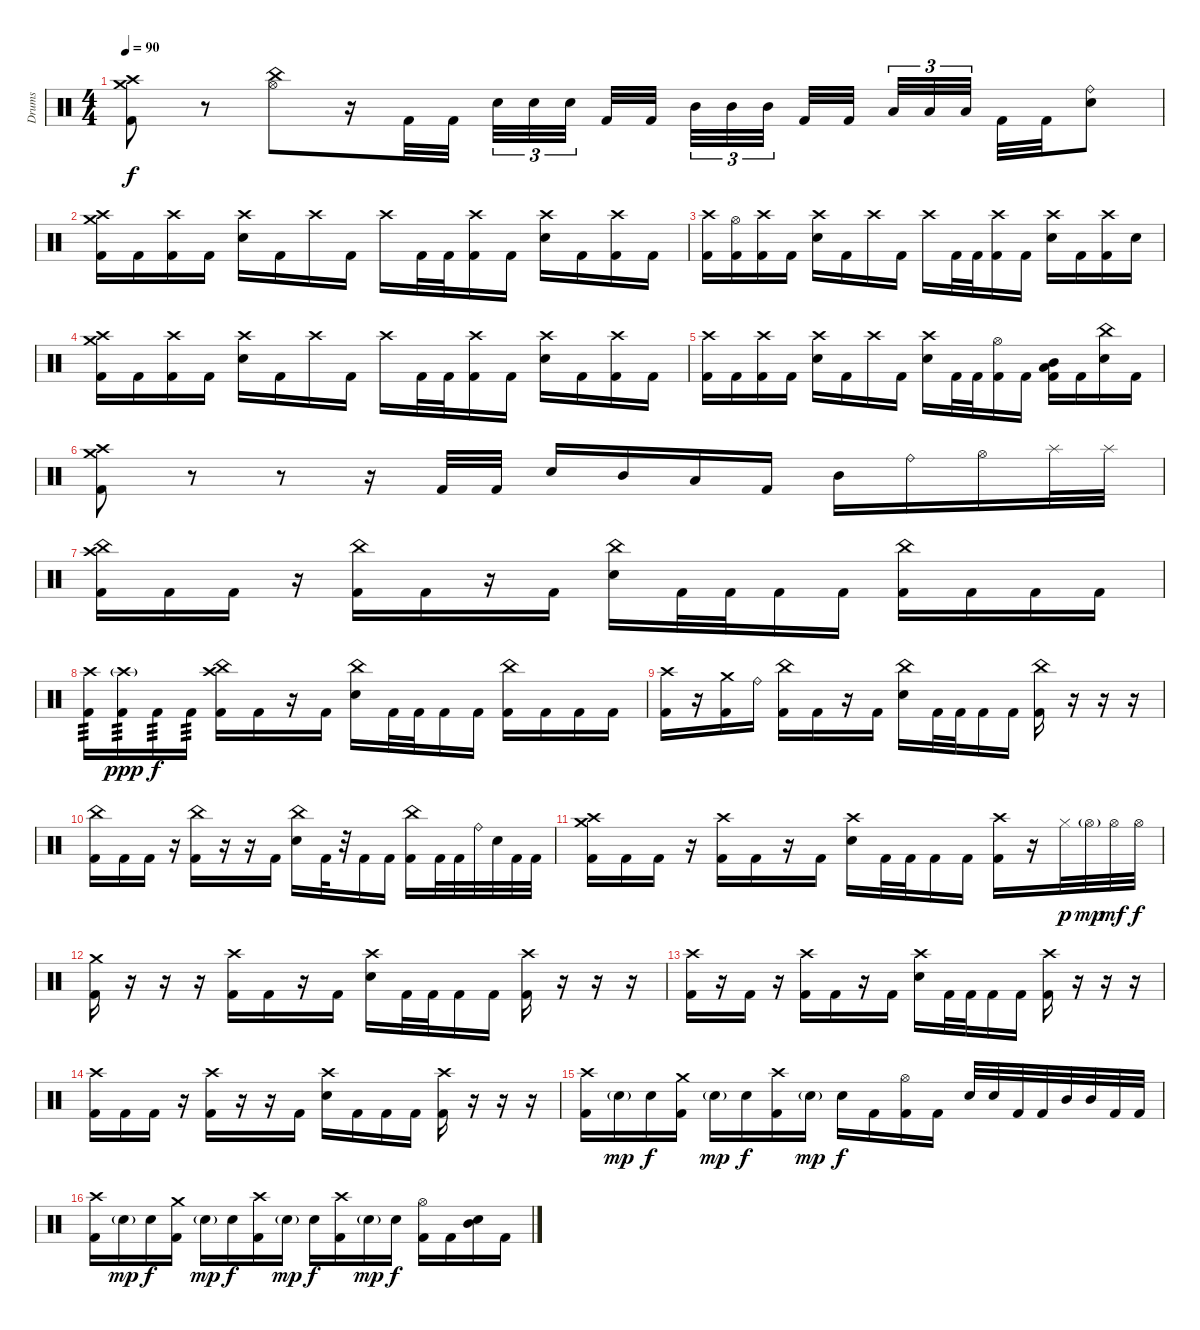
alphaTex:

\track ("Drums" "Drums") {instrument percussion}
\staff {score}
\articulation defaults
\ts (4 4)
\tempo 90
\clef neutral
\ks c
("Crash high (hit)" "Crash medium (hit)" "Kick (hit) 2").8{dy f} r.8 ("China (hit)" "Hi-Hat (open)").8 r.16 "Kick (hit) 2".32 "Kick (hit) 2".32 "Electric Snare (hit)".32{tu (3 2)} "Electric Snare (hit)".32{tu (3 2)} "Electric Snare (hit)".32{tu (3 2) beam splitsecondary} "Kick (hit) 2".32 "Kick (hit) 2".32{beam splitsecondary} "Mid Tom (hit)".32{tu (3 2)} "Mid Tom (hit)".32{tu (3 2)} "Mid Tom (hit)".32{tu (3 2) beam splitsecondary} "Kick (hit) 2".32 "Kick (hit) 2".32 "Low Tom (hit)".32{tu (3 2)} "Low Tom (hit)".32{tu (3 2)} "Low Tom (hit)".32{tu (3 2) beam splitsecondary} "Kick (hit) 2".32 "Kick (hit) 2".32 ("Ride (bell)" "Electric Snare (hit)").8 |
("Crash high (hit)" "Crash medium (hit)" "Kick (hit) 2").16 "Kick (hit) 2".16 ("Crash high (hit)" "Kick (hit) 2").16 "Kick (hit) 2".16 ("Crash high (hit)" "Electric Snare (hit)").16 "Kick (hit) 2".16 "Crash high (hit)".16 "Kick (hit) 2".16 "Crash high (hit)".16 "Kick (hit) 2".32 "Kick (hit) 2".32 ("Crash high (hit)" "Kick (hit) 2").16 "Kick (hit) 2".16 ("Crash high (hit)" "Electric Snare (hit)").16 "Kick (hit) 2".16 ("Crash high (hit)" "Kick (hit) 2").16 "Kick (hit) 2".16 |
("Crash high (hit)" "Kick (hit) 2").16 ("Hi-Hat (open)" "Kick (hit) 2").16 ("Crash high (hit)" "Kick (hit) 2").16 "Kick (hit) 2".16 ("Crash high (hit)" "Electric Snare (hit)").16 "Kick (hit) 2".16 "Crash high (hit)".16 "Kick (hit) 2".16 "Crash high (hit)".16 "Kick (hit) 2".32 "Kick (hit) 2".32 ("Crash high (hit)" "Kick (hit) 2").16 "Kick (hit) 2".16 ("Crash high (hit)" "Electric Snare (hit)").16 "Kick (hit) 2".16 ("Crash high (hit)" "Kick (hit) 2").16 "Electric Snare (hit)".16 |
("Crash high (hit)" "Crash medium (hit)" "Kick (hit) 2").16 "Kick (hit) 2".16 ("Crash high (hit)" "Kick (hit) 2").16 "Kick (hit) 2".16 ("Crash high (hit)" "Electric Snare (hit)").16 "Kick (hit) 2".16 "Crash high (hit)".16 "Kick (hit) 2".16 "Crash high (hit)".16 "Kick (hit) 2".32 "Kick (hit) 2".32 ("Crash high (hit)" "Kick (hit) 2").16 "Kick (hit) 2".16 ("Crash high (hit)" "Electric Snare (hit)").16 "Kick (hit) 2".16 ("Crash high (hit)" "Kick (hit) 2").16 "Kick (hit) 2".16 |
("Crash high (hit)" "Kick (hit) 2").16 "Kick (hit) 2".16 ("Crash high (hit)" "Kick (hit) 2").16 "Kick (hit) 2".16 ("Crash high (hit)" "Electric Snare (hit)").16 "Kick (hit) 2".16 "Crash high (hit)".16 "Kick (hit) 2".16 ("Crash high (hit)" "Electric Snare (hit)").16 "Kick (hit) 2".32 "Kick (hit) 2".32 ("Hi-Hat (open)" "Kick (hit) 2").16 "Kick (hit) 2".16 ("Mid Tom (hit)" "Low Tom (hit)" "Kick (hit) 2").16 "Kick (hit) 2".16 ("China (hit)" "Electric Snare (hit)").16 "Kick (hit) 2".16 |
("Crash high (hit)" "Crash medium (hit)" "Kick (hit) 2").8 r.8 r.8 r.16 "Kick (hit) 2".32 "Kick (hit) 2".32 "Electric Snare (hit)".16 "Mid Tom (hit)".16 "Low Tom (hit)".16 "Kick (hit) 2".16 "Mid Tom (hit)".16 "Ride (bell)".16 "Hi-Hat (open)".16 "Splash (hit)".32 "Splash (hit)".32 |
("Crash high (hit)" "China (hit)" "Kick (hit) 2").16 "Kick (hit) 2".16 "Kick (hit) 2".16 r.16 ("China (hit)" "Kick (hit) 2").16 "Kick (hit) 2".16 r.16 "Kick (hit) 2".16 ("China (hit)" "Electric Snare (hit)").16 "Kick (hit) 2".32 "Kick (hit) 2".32 "Kick (hit) 2".16 "Kick (hit) 2".16 ("China (hit)" "Kick (hit) 2").16 "Kick (hit) 2".16 "Kick (hit) 2".16 "Kick (hit) 2".16 |
("Crash high (hit)" "Kick (hit) 2").16{tp 3} ("Crash high (hit)"{g} "Kick (hit) 2").16{tp 3 dy ppp} "Kick (hit) 2".16{tp 3 dy f} "Kick (hit) 2".16{tp 3} ("Crash high (hit)" "China (hit)" "Kick (hit) 2").16 "Kick (hit) 2".16 r.16 "Kick (hit) 2".16 ("China (hit)" "Electric Snare (hit)").16 "Kick (hit) 2".32 "Kick (hit) 2".32 "Kick (hit) 2".16 "Kick (hit) 2".16 ("China (hit)" "Kick (hit) 2").16 "Kick (hit) 2".16 "Kick (hit) 2".16 "Kick (hit) 2".16 |
("Crash high (hit)" "Kick (hit) 2").16 r.16 ("Crash medium (hit)" "Kick (hit) 2").16 "Ride (bell)".16 ("China (hit)" "Kick (hit) 2").16 "Kick (hit) 2".16 r.16 "Kick (hit) 2".16 ("China (hit)" "Electric Snare (hit)").16 "Kick (hit) 2".32 "Kick (hit) 2".32 "Kick (hit) 2".16 "Kick (hit) 2".16 ("China (hit)" "Kick (hit) 2").16 r.16 r.16 r.16 |
("China (hit)" "Kick (hit) 2").16 "Kick (hit) 2".16 "Kick (hit) 2".16 r.16 ("China (hit)" "Kick (hit) 2").16 r.16 r.16 "Kick (hit) 2".16 ("China (hit)" "Electric Snare (hit)").16 "Kick (hit) 2".32 r.32 "Kick (hit) 2".16 "Kick (hit) 2".16 ("China (hit)" "Kick (hit) 2").16 "Kick (hit) 2".32 "Kick (hit) 2".32 "Ride (bell)".32 "Electric Snare (hit)".32 "Kick (hit) 2".32 "Kick (hit) 2".32 |
("Crash high (hit)" "Crash medium (hit)" "Kick (hit) 2").16 "Kick (hit) 2".16 "Kick (hit) 2".16 r.16 ("Crash high (hit)" "Kick (hit) 2").16 "Kick (hit) 2".16 r.16 "Kick (hit) 2".16 ("Crash high (hit)" "Electric Snare (hit)").16 "Kick (hit) 2".32 "Kick (hit) 2".32 "Kick (hit) 2".16 "Kick (hit) 2".16 ("Crash high (hit)" "Kick (hit) 2").16 r.16 "Hi-Hat (closed)".32{dy p} "Hi-Hat (open)"{g}.32{dy mp} "Hi-Hat (open)".32{dy mf} "Hi-Hat (open)".32{dy f} |
("Crash medium (hit)" "Kick (hit) 2").16 r.16 r.16 r.16 ("Crash high (hit)" "Kick (hit) 2").16 "Kick (hit) 2".16 r.16 "Kick (hit) 2".16 ("Crash high (hit)" "Electric Snare (hit)").16 "Kick (hit) 2".32 "Kick (hit) 2".32 "Kick (hit) 2".16 "Kick (hit) 2".16 ("Crash high (hit)" "Kick (hit) 2").16 r.16 r.16 r.16 |
("Crash high (hit)" "Kick (hit) 2").16 r.16 "Kick (hit) 2".16 r.16 ("Crash high (hit)" "Kick (hit) 2").16 "Kick (hit) 2".16 r.16 "Kick (hit) 2".16 ("Crash high (hit)" "Electric Snare (hit)").16 "Kick (hit) 2".32 "Kick (hit) 2".32 "Kick (hit) 2".16 "Kick (hit) 2".16 ("Crash high (hit)" "Kick (hit) 2").16 r.16 r.16 r.16 |
("Crash high (hit)" "Kick (hit) 2").16 "Kick (hit) 2".16 "Kick (hit) 2".16 r.16 ("Crash high (hit)" "Kick (hit) 2").16 r.16 r.16 "Kick (hit) 2".16 ("Crash high (hit)" "Electric Snare (hit)").16 "Kick (hit) 2".16 "Kick (hit) 2".16 "Kick (hit) 2".16 ("Crash high (hit)" "Kick (hit) 2").16 r.16 r.16 r.16 |
("Crash high (hit)" "Kick (hit) 2").16 "Electric Snare (hit)"{g}.16{dy mp} "Electric Snare (hit)".16{dy f} ("Crash medium (hit)" "Kick (hit) 2").16 "Electric Snare (hit)"{g}.16{dy mp} "Electric Snare (hit)".16{dy f} ("Crash high (hit)" "Kick (hit) 2").16 "Electric Snare (hit)"{g}.16{dy mp} "Electric Snare (hit)".16{dy f} "Kick (hit) 2".16 ("Hi-Hat (open)" "Kick (hit) 2").16 "Kick (hit) 2".16 "Electric Snare (hit)".32 "Electric Snare (hit)".32 "Kick (hit) 2".32 "Kick (hit) 2".32 "Mid Tom (hit)".32 "Mid Tom (hit)".32 "Kick (hit) 2".32 "Kick (hit) 2".32 |
("Crash high (hit)" "Kick (hit) 2").16 "Electric Snare (hit)"{g}.16{dy mp} "Electric Snare (hit)".16{dy f} ("Crash medium (hit)" "Kick (hit) 2").16 "Electric Snare (hit)"{g}.16{dy mp} "Electric Snare (hit)".16{dy f} ("Crash high (hit)" "Kick (hit) 2").16 "Electric Snare (hit)"{g}.16{dy mp} "Electric Snare (hit)".16{dy f} ("Crash high (hit)" "Kick (hit) 2").16 "Electric Snare (hit)"{g}.16{dy mp} "Electric Snare (hit)".16{dy f} ("Hi-Hat (open)" "Kick (hit) 2").16 "Kick (hit) 2".16 ("Mid Tom (hit)" "Electric Snare (hit)").16 "Kick (hit) 2".16
